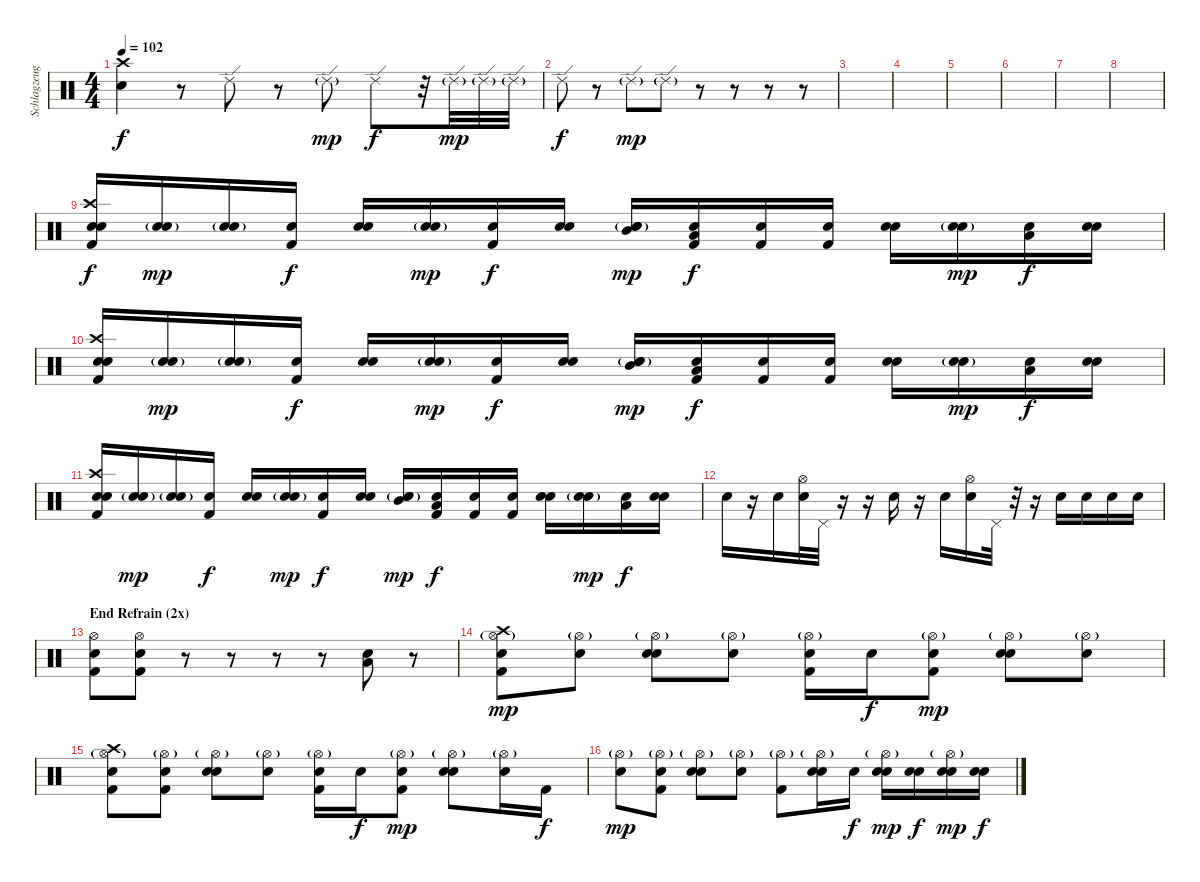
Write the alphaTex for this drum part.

\track ("Schlagzeug" "Schlagzeug") {instrument percussion}
\staff {score}
\articulation defaults
\ts (4 4)
\tempo 102
\clef neutral
\ks c
("Snare (hit) 2" "Crash high (hit)").4{dy f} r.8 "Ride (edge) 2".8 r.8 "Ride (edge) 2"{g}.8{dy mp} "Ride (edge) 2".8{dy f} r.32 "Ride (edge) 2"{g}.32{dy mp} "Ride (edge) 2"{g}.32 "Ride (edge) 2"{g}.32 |
"Ride (edge) 2".8{dy f} r.8 "Ride (edge) 2"{g}.8{dy mp} "Ride (edge) 2"{g}.8 r.8 r.8 r.8 r.8 |
|
|
|
|
|
|
("Snare (hit) 2" "Kick (hit) 2" "Crash high (hit)" "Snare (hit)").16{dy f} ("Snare (hit) 2"{g} "Snare (hit)").16{dy mp} ("Snare (hit) 2"{g} "Snare (hit)").16 ("Kick (hit) 2" "Snare (hit)").16{dy f} ("Snare (hit) 2" "Snare (hit)").16 ("Snare (hit) 2"{g} "Snare (hit)").16{dy mp} ("Kick (hit) 2" "Snare (hit)").16{dy f} ("Snare (hit) 2" "Snare (hit)").16 ("Snare (hit) 2"{g} "Mid Tom (hit)" "Snare (hit)").16{dy mp} ("Kick (hit) 2" "Low Tom (hit)" "Snare (hit)").16{dy f} ("Kick (hit) 2" "Snare (hit)").16 ("Kick (hit) 2" "Snare (hit)").16 ("Snare (hit) 2" "Snare (hit)").16 ("Snare (hit) 2"{g} "Snare (hit)").16{dy mp} ("Low Tom (hit)" "Snare (hit)").16{dy f} ("Snare (hit) 2" "Snare (hit)").16 |
("Snare (hit) 2" "Kick (hit) 2" "Crash high (hit)" "Snare (hit)").16 ("Snare (hit) 2"{g} "Snare (hit)").16{dy mp} ("Snare (hit) 2"{g} "Snare (hit)").16 ("Kick (hit) 2" "Snare (hit)").16{dy f} ("Snare (hit) 2" "Snare (hit)").16 ("Snare (hit) 2"{g} "Snare (hit)").16{dy mp} ("Kick (hit) 2" "Snare (hit)").16{dy f} ("Snare (hit) 2" "Snare (hit)").16 ("Snare (hit) 2"{g} "Mid Tom (hit)" "Snare (hit)").16{dy mp} ("Kick (hit) 2" "Low Tom (hit)" "Snare (hit)").16{dy f} ("Kick (hit) 2" "Snare (hit)").16 ("Kick (hit) 2" "Snare (hit)").16 ("Snare (hit) 2" "Snare (hit)").16 ("Snare (hit) 2"{g} "Snare (hit)").16{dy mp} ("Low Tom (hit)" "Snare (hit)").16{dy f} ("Snare (hit) 2" "Snare (hit)").16 |
("Snare (hit) 2" "Kick (hit) 2" "Crash high (hit)" "Snare (hit)").16 ("Snare (hit) 2"{g} "Snare (hit)").16{dy mp} ("Snare (hit) 2"{g} "Snare (hit)").16 ("Kick (hit) 2" "Snare (hit)").16{dy f} ("Snare (hit) 2" "Snare (hit)").16 ("Snare (hit) 2"{g} "Snare (hit)").16{dy mp} ("Kick (hit) 2" "Snare (hit)").16{dy f} ("Snare (hit) 2" "Snare (hit)").16 ("Snare (hit) 2"{g} "Mid Tom (hit)" "Snare (hit)").16{dy mp} ("Kick (hit) 2" "Low Tom (hit)" "Snare (hit)").16{dy f} ("Kick (hit) 2" "Snare (hit)").16 ("Kick (hit) 2" "Snare (hit)").16 ("Snare (hit) 2" "Snare (hit)").16 ("Snare (hit) 2"{g} "Snare (hit)").16{dy mp} ("Low Tom (hit)" "Snare (hit)").16{dy f} ("Snare (hit) 2" "Snare (hit)").16 |
"Snare (hit) 2".16 r.16 "Snare (hit) 2".16 ("Snare (hit) 2" "Hi-Hat (open)").32 "Pedal Hi-Hat (hit)".32 r.16 r.16 "Snare (hit) 2".16 r.16 "Snare (hit) 2".16 ("Snare (hit) 2" "Hi-Hat (open)").16 "Pedal Hi-Hat (hit)".32 r.32 r.16 "Snare (hit) 2".16 "Snare (hit) 2".16 "Snare (hit) 2".16 "Snare (hit) 2".16 |
\section ("" "End Refrain (2x)")
("Kick (hit) 2" "Snare (hit) 2" "Hi-Hat (open)").8 ("Kick (hit) 2" "Snare (hit) 2" "Hi-Hat (open)").8 r.8 r.8 r.8 r.8 ("Snare (hit) 2" "Low Tom (hit)").8 r.8 |
("Kick (hit) 2" "Crash high (hit)" "Hi-Hat (open)"{g} "Snare (hit)").8{dy mp} ("Hi-Hat (open)"{g} "Snare (hit)").8 ("Snare (hit) 2" "Hi-Hat (open)"{g} "Snare (hit)").8 ("Hi-Hat (open)"{g} "Snare (hit)").8 ("Kick (hit) 2" "Hi-Hat (open)"{g} "Snare (hit)").16 "Snare (hit) 2".16{dy f} ("Kick (hit) 2" "Hi-Hat (open)"{g} "Snare (hit)").8{dy mp} ("Snare (hit) 2" "Hi-Hat (open)"{g} "Snare (hit)").8 ("Hi-Hat (open)"{g} "Snare (hit)").8 |
("Kick (hit) 2" "Crash high (hit)" "Hi-Hat (open)"{g} "Snare (hit)").8 ("Kick (hit) 2" "Hi-Hat (open)"{g} "Snare (hit)").8 ("Snare (hit) 2" "Hi-Hat (open)"{g} "Snare (hit)").8 ("Hi-Hat (open)"{g} "Snare (hit)").8 ("Kick (hit) 2" "Hi-Hat (open)"{g} "Snare (hit)").16 "Snare (hit) 2".16{dy f} ("Kick (hit) 2" "Hi-Hat (open)"{g} "Snare (hit)").8{dy mp} ("Snare (hit) 2" "Hi-Hat (open)"{g} "Snare (hit)").8 ("Hi-Hat (open)"{g} "Snare (hit)").16 "Kick (hit) 2".16{dy f} |
("Hi-Hat (open)"{g} "Snare (hit)").8{dy mp} ("Kick (hit) 2" "Hi-Hat (open)"{g} "Snare (hit)").8 ("Snare (hit) 2" "Hi-Hat (open)"{g} "Snare (hit)").8 ("Hi-Hat (open)"{g} "Snare (hit)").8 ("Kick (hit) 2" "Hi-Hat (open)"{g}).8 ("Snare (hit) 2" "Hi-Hat (open)"{g} "Snare (hit)").16 "Snare (hit)".16{dy f} ("Snare (hit) 2" "Hi-Hat (open)"{g} "Snare (hit)").16{dy mp} ("Snare (hit) 2" "Snare (hit)").16{dy f} ("Snare (hit) 2" "Hi-Hat (open)"{g} "Snare (hit)").16{dy mp} ("Snare (hit) 2" "Snare (hit)").16{dy f}
